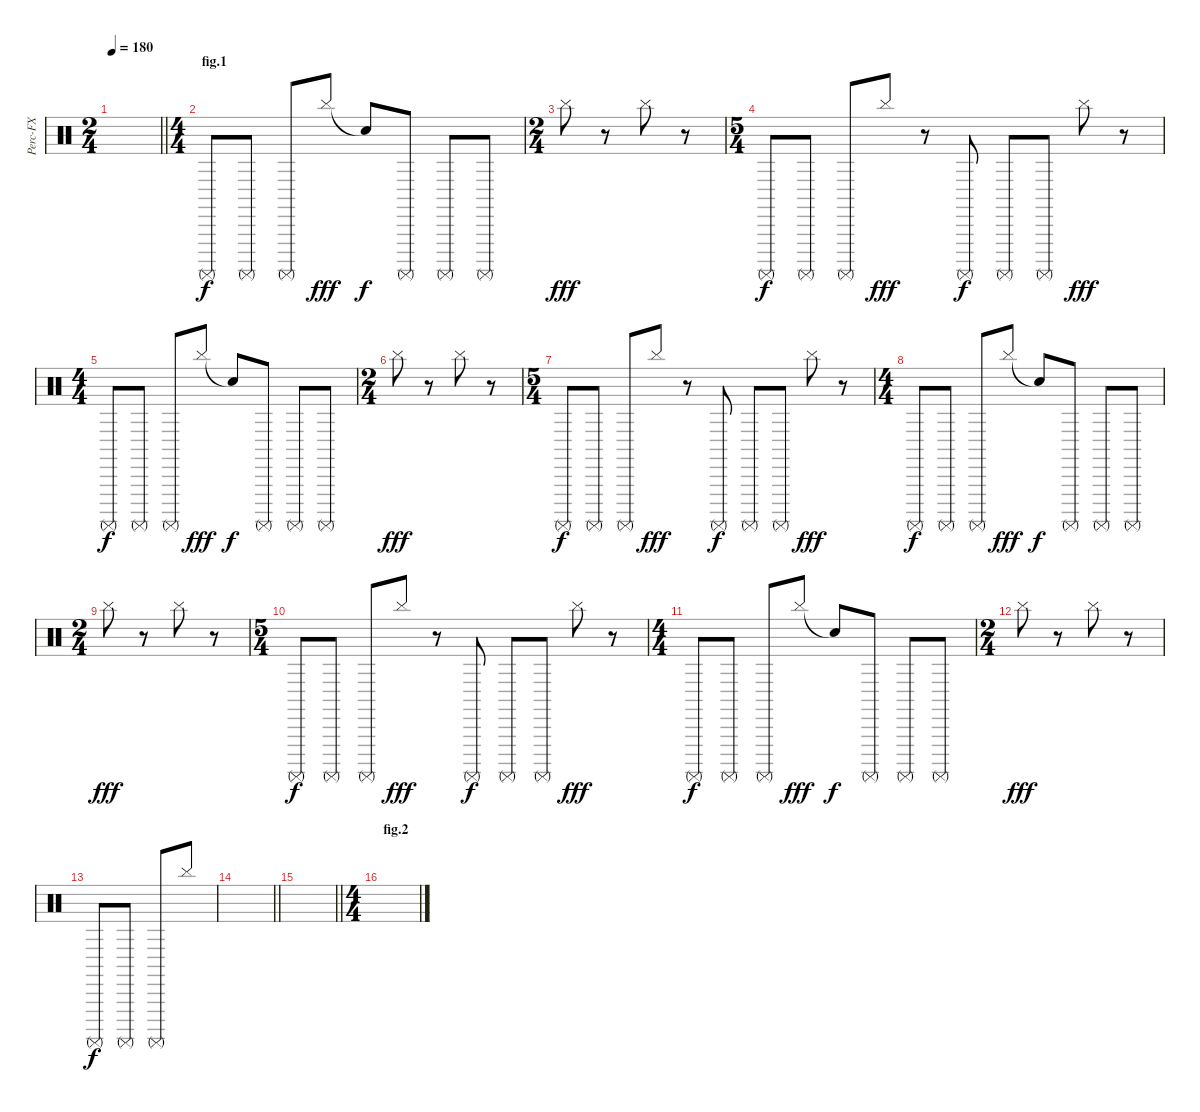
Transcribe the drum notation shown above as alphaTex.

\track ("Perc-FX" "Perc-FX") {instrument percussion}
\staff {score}
\articulation defaults
\ts (2 4)
\tempo 180
\clef neutral
\barLineRight lightlight
\ks c
|
\ts (4 4)
\section ("" "fig.1")
"Surdo (mute)".8 "Surdo (mute)".8 "Surdo (mute)".8 "Cymbal (hit)".8{dy fff} "Snare (hit)"{t}.8{dy f} "Surdo (mute)".8 "Surdo (mute)".8 "Surdo (mute)".8 |
\ts (2 4)
"Cymbal (hit)".8{dy fff} r.8 "Cymbal (hit)".8 r.8 |
\ts (5 4)
"Surdo (mute)".8{dy f} "Surdo (mute)".8 "Surdo (mute)".8 "Cymbal (hit)".8{dy fff} r.8 "Surdo (mute)".8{dy f} "Surdo (mute)".8 "Surdo (mute)".8 "Cymbal (hit)".8{dy fff} r.8 |
\ts (4 4)
"Surdo (mute)".8{dy f} "Surdo (mute)".8 "Surdo (mute)".8 "Cymbal (hit)".8{dy fff} "Snare (hit)"{t}.8{dy f} "Surdo (mute)".8 "Surdo (mute)".8 "Surdo (mute)".8 |
\ts (2 4)
"Cymbal (hit)".8{dy fff} r.8 "Cymbal (hit)".8 r.8 |
\ts (5 4)
"Surdo (mute)".8{dy f} "Surdo (mute)".8 "Surdo (mute)".8 "Cymbal (hit)".8{dy fff} r.8 "Surdo (mute)".8{dy f} "Surdo (mute)".8 "Surdo (mute)".8 "Cymbal (hit)".8{dy fff} r.8 |
\ts (4 4)
"Surdo (mute)".8{dy f} "Surdo (mute)".8 "Surdo (mute)".8 "Cymbal (hit)".8{dy fff} "Snare (hit)"{t}.8{dy f} "Surdo (mute)".8 "Surdo (mute)".8 "Surdo (mute)".8 |
\ts (2 4)
"Cymbal (hit)".8{dy fff} r.8 "Cymbal (hit)".8 r.8 |
\ts (5 4)
"Surdo (mute)".8{dy f} "Surdo (mute)".8 "Surdo (mute)".8 "Cymbal (hit)".8{dy fff} r.8 "Surdo (mute)".8{dy f} "Surdo (mute)".8 "Surdo (mute)".8 "Cymbal (hit)".8{dy fff} r.8 |
\ts (4 4)
"Surdo (mute)".8{dy f} "Surdo (mute)".8 "Surdo (mute)".8 "Cymbal (hit)".8{dy fff} "Snare (hit)"{t}.8{dy f} "Surdo (mute)".8 "Surdo (mute)".8 "Surdo (mute)".8 |
\ts (2 4)
"Cymbal (hit)".8{dy fff} r.8 "Cymbal (hit)".8 r.8 |
"Surdo (mute)".8{dy f} "Surdo (mute)".8 "Surdo (mute)".8 "Cymbal (hit)".8 |
\barLineRight lightlight
|
\barLineRight lightlight
|
\ts (4 4)
\section ("" "fig.2")
